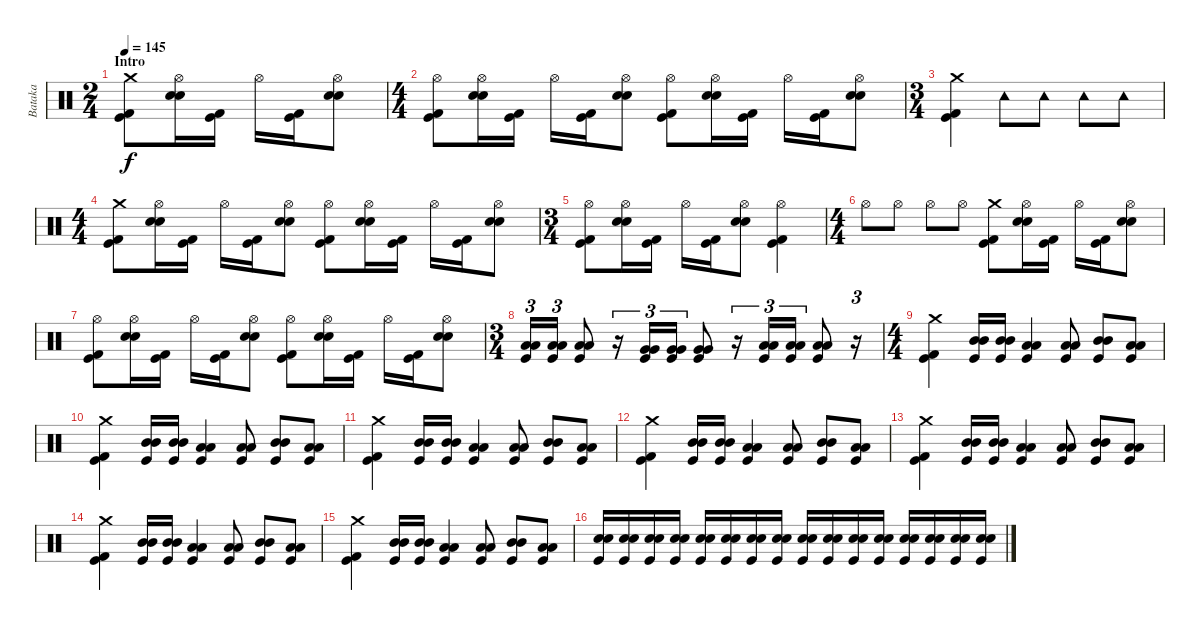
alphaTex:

\track ("Bataka" "Bataka") {instrument percussion}
\staff {score}
\articulation defaults
\ts (2 4)
\section ("" "Intro")
\tempo 145
\clef neutral
\ks c
("Crash medium (hit)" "Kick (hit) 2" "Kick (hit)").8{dy f} ("Hi-Hat (open)" "Snare (hit) 2" "Snare (hit) 2").16 ("Kick (hit) 2" "Kick (hit)").16 "Hi-Hat (open)".16 ("Kick (hit) 2" "Kick (hit)").16 ("Hi-Hat (open)" "Snare (hit) 2" "Snare (hit) 2").8 |
\ts (4 4)
("Hi-Hat (open)" "Kick (hit) 2" "Kick (hit)").8 ("Hi-Hat (open)" "Snare (hit) 2" "Snare (hit) 2").16 ("Kick (hit) 2" "Kick (hit)").16 "Hi-Hat (open)".16 ("Kick (hit) 2" "Kick (hit)").16 ("Hi-Hat (open)" "Snare (hit) 2" "Snare (hit) 2").8 ("Hi-Hat (open)" "Kick (hit) 2" "Kick (hit)").8 ("Hi-Hat (open)" "Snare (hit) 2" "Snare (hit) 2").16 ("Kick (hit) 2" "Kick (hit)").16 "Hi-Hat (open)".16 ("Kick (hit) 2" "Kick (hit)").16 ("Hi-Hat (open)" "Snare (hit) 2" "Snare (hit) 2").8 |
\ts (3 4)
("Crash medium (hit)" "Kick (hit) 2" "Kick (hit)").4 "Tambourine (hit)".8 "Tambourine (hit)".8 "Tambourine (hit)".8 "Tambourine (hit)".8 |
\ts (4 4)
("Crash medium (hit)" "Kick (hit) 2" "Kick (hit)").8 ("Hi-Hat (open)" "Snare (hit) 2" "Snare (hit) 2").16 ("Kick (hit) 2" "Kick (hit)").16 "Hi-Hat (open)".16 ("Kick (hit) 2" "Kick (hit)").16 ("Hi-Hat (open)" "Snare (hit) 2" "Snare (hit) 2").8 ("Hi-Hat (open)" "Kick (hit) 2" "Kick (hit)").8 ("Hi-Hat (open)" "Snare (hit) 2" "Snare (hit) 2").16 ("Kick (hit) 2" "Kick (hit)").16 "Hi-Hat (open)".16 ("Kick (hit) 2" "Kick (hit)").16 ("Hi-Hat (open)" "Snare (hit) 2" "Snare (hit) 2").8 |
\ts (3 4)
("Hi-Hat (open)" "Kick (hit) 2" "Kick (hit)").8 ("Hi-Hat (open)" "Snare (hit) 2" "Snare (hit) 2").16 ("Kick (hit) 2" "Kick (hit)").16 "Hi-Hat (open)".16 ("Kick (hit) 2" "Kick (hit)").16 ("Hi-Hat (open)" "Snare (hit) 2" "Snare (hit) 2").8 ("Hi-Hat (open)" "Kick (hit) 2" "Kick (hit)").4 |
\ts (4 4)
"Hi-Hat (open)".8 "Hi-Hat (open)".8 "Hi-Hat (open)".8 "Hi-Hat (open)".8 ("Crash medium (hit)" "Kick (hit) 2" "Kick (hit)").8 ("Hi-Hat (open)" "Snare (hit) 2" "Snare (hit) 2").16 ("Kick (hit) 2" "Kick (hit)").16 "Hi-Hat (open)".16 ("Kick (hit) 2" "Kick (hit)").16 ("Hi-Hat (open)" "Snare (hit) 2" "Snare (hit) 2").8 |
("Hi-Hat (open)" "Kick (hit) 2" "Kick (hit)").8 ("Hi-Hat (open)" "Snare (hit) 2" "Snare (hit) 2").16 ("Kick (hit) 2" "Kick (hit)").16 "Hi-Hat (open)".16 ("Kick (hit) 2" "Kick (hit)").16 ("Hi-Hat (open)" "Snare (hit) 2" "Snare (hit) 2").8 ("Hi-Hat (open)" "Kick (hit) 2" "Kick (hit)").8 ("Hi-Hat (open)" "Snare (hit) 2" "Snare (hit) 2").16 ("Kick (hit) 2" "Kick (hit)").16 "Hi-Hat (open)".16 ("Kick (hit) 2" "Kick (hit)").16 ("Hi-Hat (open)" "Snare (hit) 2" "Snare (hit) 2").8 |
\ts (3 4)
("Low Tom (hit)" "Low Tom (hit)" "Kick (hit)").16{tu (3 2)} ("Low Tom (hit)" "Low Tom (hit)" "Kick (hit)").16{tu (3 2)} ("Low Tom (hit)" "Low Tom (hit)" "Kick (hit)").8 r.16{tu (3 2)} ("Very Low Tom (hit)" "Very Low Tom (hit)" "Kick (hit)").16{tu (3 2)} ("Very Low Tom (hit)" "Very Low Tom (hit)" "Kick (hit)").16{tu (3 2)} ("Very Low Tom (hit)" "Very Low Tom (hit)" "Kick (hit)").8 r.16{tu (3 2)} ("Low Floor Tom (hit)" "Low Floor Tom (hit)" "Kick (hit)").16{tu (3 2)} ("Low Floor Tom (hit)" "Low Floor Tom (hit)" "Kick (hit)").16{tu (3 2)} ("Low Floor Tom (hit)" "Low Floor Tom (hit)" "Kick (hit)").8 r.16{tu (3 2)} |
\ts (4 4)
("Crash medium (hit)" "Kick (hit) 2" "Kick (hit)").4 ("Mid Tom (hit)" "Mid Tom (hit)" "Kick (hit)").16 ("Mid Tom (hit)" "Mid Tom (hit)" "Kick (hit)").16 ("Low Tom (hit)" "Low Tom (hit)" "Kick (hit)").4 ("Low Tom (hit)" "Low Tom (hit)" "Kick (hit)").8 ("Mid Tom (hit)" "Mid Tom (hit)" "Kick (hit)").8 ("Low Tom (hit)" "Low Tom (hit)" "Kick (hit)").8 |
("Crash medium (hit)" "Kick (hit) 2" "Kick (hit)").4 ("Mid Tom (hit)" "Mid Tom (hit)" "Kick (hit)").16 ("Mid Tom (hit)" "Mid Tom (hit)" "Kick (hit)").16 ("Low Tom (hit)" "Low Tom (hit)" "Kick (hit)").4 ("Low Tom (hit)" "Low Tom (hit)" "Kick (hit)").8 ("Mid Tom (hit)" "Mid Tom (hit)" "Kick (hit)").8 ("Low Tom (hit)" "Low Tom (hit)" "Kick (hit)").8 |
("Crash medium (hit)" "Kick (hit) 2" "Kick (hit)").4 ("Mid Tom (hit)" "Mid Tom (hit)" "Kick (hit)").16 ("Mid Tom (hit)" "Mid Tom (hit)" "Kick (hit)").16 ("Low Tom (hit)" "Low Tom (hit)" "Kick (hit)").4 ("Low Tom (hit)" "Low Tom (hit)" "Kick (hit)").8 ("Mid Tom (hit)" "Mid Tom (hit)" "Kick (hit)").8 ("Low Tom (hit)" "Low Tom (hit)" "Kick (hit)").8 |
("Crash medium (hit)" "Kick (hit) 2" "Kick (hit)").4 ("Mid Tom (hit)" "Mid Tom (hit)" "Kick (hit)").16 ("Mid Tom (hit)" "Mid Tom (hit)" "Kick (hit)").16 ("Low Tom (hit)" "Low Tom (hit)" "Kick (hit)").4 ("Low Tom (hit)" "Low Tom (hit)" "Kick (hit)").8 ("Mid Tom (hit)" "Mid Tom (hit)" "Kick (hit)").8 ("Low Tom (hit)" "Low Tom (hit)" "Kick (hit)").8 |
("Crash medium (hit)" "Kick (hit) 2" "Kick (hit)").4 ("Mid Tom (hit)" "Mid Tom (hit)" "Kick (hit)").16 ("Mid Tom (hit)" "Mid Tom (hit)" "Kick (hit)").16 ("Low Tom (hit)" "Low Tom (hit)" "Kick (hit)").4 ("Low Tom (hit)" "Low Tom (hit)" "Kick (hit)").8 ("Mid Tom (hit)" "Mid Tom (hit)" "Kick (hit)").8 ("Low Tom (hit)" "Low Tom (hit)" "Kick (hit)").8 |
("Crash medium (hit)" "Kick (hit) 2" "Kick (hit)").4 ("Mid Tom (hit)" "Mid Tom (hit)" "Kick (hit)").16 ("Mid Tom (hit)" "Mid Tom (hit)" "Kick (hit)").16 ("Low Tom (hit)" "Low Tom (hit)" "Kick (hit)").4 ("Low Tom (hit)" "Low Tom (hit)" "Kick (hit)").8 ("Mid Tom (hit)" "Mid Tom (hit)" "Kick (hit)").8 ("Low Tom (hit)" "Low Tom (hit)" "Kick (hit)").8 |
("Crash medium (hit)" "Kick (hit) 2" "Kick (hit)").4 ("Mid Tom (hit)" "Mid Tom (hit)" "Kick (hit)").16 ("Mid Tom (hit)" "Mid Tom (hit)" "Kick (hit)").16 ("Low Tom (hit)" "Low Tom (hit)" "Kick (hit)").4 ("Low Tom (hit)" "Low Tom (hit)" "Kick (hit)").8 ("Mid Tom (hit)" "Mid Tom (hit)" "Kick (hit)").8 ("Low Tom (hit)" "Low Tom (hit)" "Kick (hit)").8 |
("Snare (hit) 2" "Snare (hit) 2" "Kick (hit)").16 ("Snare (hit) 2" "Snare (hit) 2" "Kick (hit)").16 ("Snare (hit) 2" "Snare (hit) 2" "Kick (hit)").16 ("Snare (hit) 2" "Snare (hit) 2" "Kick (hit)").16 ("Snare (hit) 2" "Snare (hit) 2" "Kick (hit)").16 ("Snare (hit) 2" "Snare (hit) 2" "Kick (hit)").16 ("Snare (hit) 2" "Snare (hit) 2" "Kick (hit)").16 ("Snare (hit) 2" "Snare (hit) 2" "Kick (hit)").16 ("Snare (hit) 2" "Snare (hit) 2" "Kick (hit)").16 ("Snare (hit) 2" "Snare (hit) 2" "Kick (hit)").16 ("Snare (hit) 2" "Snare (hit) 2" "Kick (hit)").16 ("Snare (hit) 2" "Snare (hit) 2" "Kick (hit)").16 ("Snare (hit) 2" "Snare (hit) 2" "Kick (hit)").16 ("Snare (hit) 2" "Snare (hit) 2" "Kick (hit)").16 ("Snare (hit) 2" "Snare (hit) 2" "Kick (hit)").16 ("Snare (hit) 2" "Snare (hit) 2" "Kick (hit)").16
